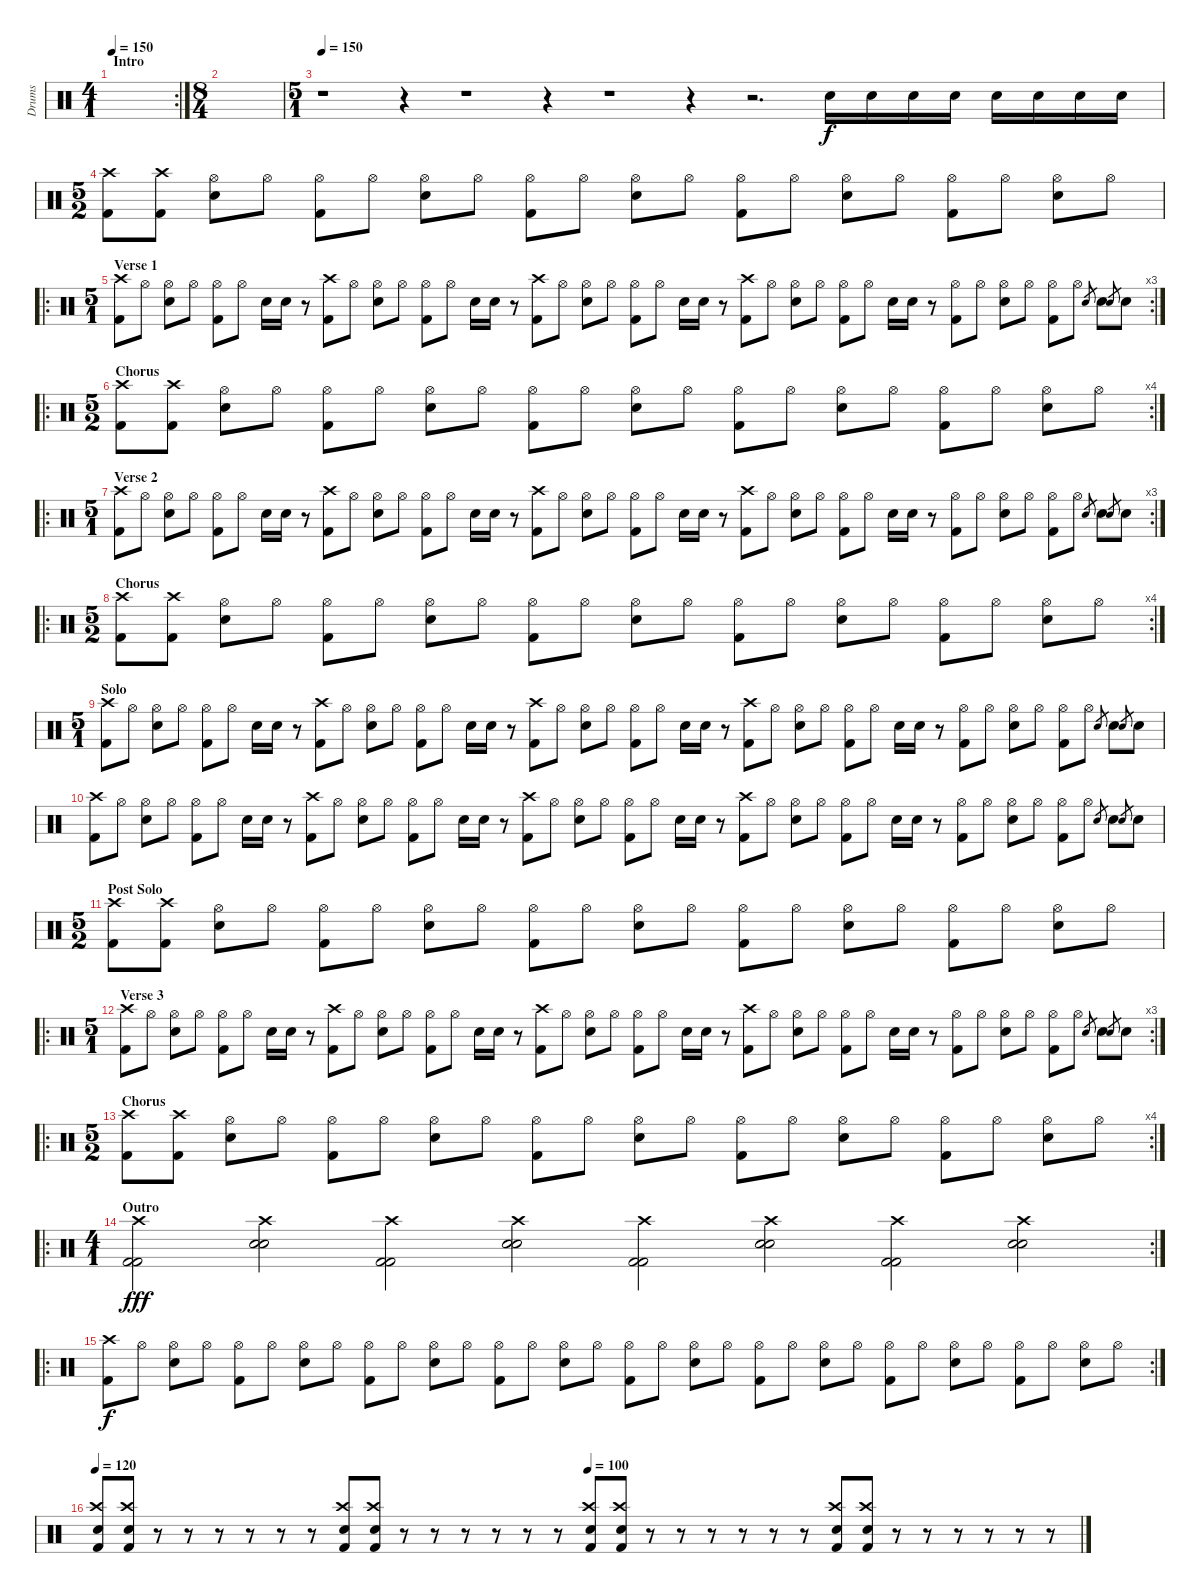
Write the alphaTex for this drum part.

\track ("Drums" "Drums") {instrument percussion}
\staff {score}
\articulation defaults
\rc 2
\ts (4 1)
\section ("" "Intro")
\tempo 150
\tempo 100
\tempo 150
\clef neutral
\ks c
|
\ts (8 4)
|
\ts (5 1)
\tempo 150
r.1 r.4 r.1 r.4 r.1 r.4 r.2{d} "Electric Snare (hit)".16 "Electric Snare (hit)".16 "Electric Snare (hit)".16 "Electric Snare (hit)".16 "Electric Snare (hit)".16 "Electric Snare (hit)".16 "Electric Snare (hit)".16 "Electric Snare (hit)".16 |
\ts (5 2)
("Crash high (hit)" "Kick (hit) 2").8 ("Crash high (hit)" "Kick (hit) 2").8 ("Hi-Hat (open)" "Electric Snare (hit)").8 "Hi-Hat (open)".8 ("Hi-Hat (open)" "Kick (hit) 2").8 "Hi-Hat (open)".8 ("Hi-Hat (open)" "Electric Snare (hit)").8 "Hi-Hat (open)".8 ("Hi-Hat (open)" "Kick (hit) 2").8 "Hi-Hat (open)".8 ("Hi-Hat (open)" "Electric Snare (hit)").8 "Hi-Hat (open)".8 ("Hi-Hat (open)" "Kick (hit) 2").8 "Hi-Hat (open)".8 ("Hi-Hat (open)" "Electric Snare (hit)").8 "Hi-Hat (open)".8 ("Hi-Hat (open)" "Kick (hit) 2").8 "Hi-Hat (open)".8 ("Hi-Hat (open)" "Electric Snare (hit)").8 "Hi-Hat (open)".8 |
\ro
\rc 3
\ts (5 1)
\section ("" "Verse 1")
("Crash high (hit)" "Kick (hit) 2").8 "Hi-Hat (open)".8 ("Hi-Hat (open)" "Electric Snare (hit)").8 "Hi-Hat (open)".8 ("Hi-Hat (open)" "Kick (hit) 2").8 "Hi-Hat (open)".8 "Electric Snare (hit)".16 "Electric Snare (hit)".16 r.8 ("Crash high (hit)" "Kick (hit) 2").8 "Hi-Hat (open)".8 ("Hi-Hat (open)" "Electric Snare (hit)").8 "Hi-Hat (open)".8 ("Hi-Hat (open)" "Kick (hit) 2").8 "Hi-Hat (open)".8 "Electric Snare (hit)".16 "Electric Snare (hit)".16 r.8 ("Crash high (hit)" "Kick (hit) 2").8 "Hi-Hat (open)".8 ("Hi-Hat (open)" "Electric Snare (hit)").8 "Hi-Hat (open)".8 ("Hi-Hat (open)" "Kick (hit) 2").8 "Hi-Hat (open)".8 "Electric Snare (hit)".16 "Electric Snare (hit)".16 r.8 ("Crash high (hit)" "Kick (hit) 2").8 "Hi-Hat (open)".8 ("Hi-Hat (open)" "Electric Snare (hit)").8 "Hi-Hat (open)".8 ("Hi-Hat (open)" "Kick (hit) 2").8 "Hi-Hat (open)".8 "Electric Snare (hit)".16 "Electric Snare (hit)".16 r.8 ("Hi-Hat (open)" "Kick (hit) 2").8 "Hi-Hat (open)".8 ("Hi-Hat (open)" "Electric Snare (hit)").8 "Hi-Hat (open)".8 ("Hi-Hat (open)" "Kick (hit) 2").8 "Hi-Hat (open)".8 "Electric Snare (hit)".8{gr} "Electric Snare (hit)".8 "Electric Snare (hit)".8{gr} "Electric Snare (hit)".8 |
\ro
\rc 4
\ts (5 2)
\section ("" "Chorus")
("Crash high (hit)" "Kick (hit) 2").8 ("Crash high (hit)" "Kick (hit) 2").8 ("Hi-Hat (open)" "Electric Snare (hit)").8 "Hi-Hat (open)".8 ("Hi-Hat (open)" "Kick (hit) 2").8 "Hi-Hat (open)".8 ("Hi-Hat (open)" "Electric Snare (hit)").8 "Hi-Hat (open)".8 ("Hi-Hat (open)" "Kick (hit) 2").8 "Hi-Hat (open)".8 ("Hi-Hat (open)" "Electric Snare (hit)").8 "Hi-Hat (open)".8 ("Hi-Hat (open)" "Kick (hit) 2").8 "Hi-Hat (open)".8 ("Hi-Hat (open)" "Electric Snare (hit)").8 "Hi-Hat (open)".8 ("Hi-Hat (open)" "Kick (hit) 2").8 "Hi-Hat (open)".8 ("Hi-Hat (open)" "Electric Snare (hit)").8 "Hi-Hat (open)".8 |
\ro
\rc 3
\ts (5 1)
\section ("" "Verse 2")
("Crash high (hit)" "Kick (hit) 2").8 "Hi-Hat (open)".8 ("Hi-Hat (open)" "Electric Snare (hit)").8 "Hi-Hat (open)".8 ("Hi-Hat (open)" "Kick (hit) 2").8 "Hi-Hat (open)".8 "Electric Snare (hit)".16 "Electric Snare (hit)".16 r.8 ("Crash high (hit)" "Kick (hit) 2").8 "Hi-Hat (open)".8 ("Hi-Hat (open)" "Electric Snare (hit)").8 "Hi-Hat (open)".8 ("Hi-Hat (open)" "Kick (hit) 2").8 "Hi-Hat (open)".8 "Electric Snare (hit)".16 "Electric Snare (hit)".16 r.8 ("Crash high (hit)" "Kick (hit) 2").8 "Hi-Hat (open)".8 ("Hi-Hat (open)" "Electric Snare (hit)").8 "Hi-Hat (open)".8 ("Hi-Hat (open)" "Kick (hit) 2").8 "Hi-Hat (open)".8 "Electric Snare (hit)".16 "Electric Snare (hit)".16 r.8 ("Crash high (hit)" "Kick (hit) 2").8 "Hi-Hat (open)".8 ("Hi-Hat (open)" "Electric Snare (hit)").8 "Hi-Hat (open)".8 ("Hi-Hat (open)" "Kick (hit) 2").8 "Hi-Hat (open)".8 "Electric Snare (hit)".16 "Electric Snare (hit)".16 r.8 ("Hi-Hat (open)" "Kick (hit) 2").8 "Hi-Hat (open)".8 ("Hi-Hat (open)" "Electric Snare (hit)").8 "Hi-Hat (open)".8 ("Hi-Hat (open)" "Kick (hit) 2").8 "Hi-Hat (open)".8 "Electric Snare (hit)".8{gr} "Electric Snare (hit)".8 "Electric Snare (hit)".8{gr} "Electric Snare (hit)".8 |
\ro
\rc 4
\ts (5 2)
\section ("" "Chorus")
("Crash high (hit)" "Kick (hit) 2").8 ("Crash high (hit)" "Kick (hit) 2").8 ("Hi-Hat (open)" "Electric Snare (hit)").8 "Hi-Hat (open)".8 ("Hi-Hat (open)" "Kick (hit) 2").8 "Hi-Hat (open)".8 ("Hi-Hat (open)" "Electric Snare (hit)").8 "Hi-Hat (open)".8 ("Hi-Hat (open)" "Kick (hit) 2").8 "Hi-Hat (open)".8 ("Hi-Hat (open)" "Electric Snare (hit)").8 "Hi-Hat (open)".8 ("Hi-Hat (open)" "Kick (hit) 2").8 "Hi-Hat (open)".8 ("Hi-Hat (open)" "Electric Snare (hit)").8 "Hi-Hat (open)".8 ("Hi-Hat (open)" "Kick (hit) 2").8 "Hi-Hat (open)".8 ("Hi-Hat (open)" "Electric Snare (hit)").8 "Hi-Hat (open)".8 |
\ts (5 1)
\section ("" "Solo")
("Crash high (hit)" "Kick (hit) 2").8 "Hi-Hat (open)".8 ("Hi-Hat (open)" "Electric Snare (hit)").8 "Hi-Hat (open)".8 ("Hi-Hat (open)" "Kick (hit) 2").8 "Hi-Hat (open)".8 "Electric Snare (hit)".16 "Electric Snare (hit)".16 r.8 ("Crash high (hit)" "Kick (hit) 2").8 "Hi-Hat (open)".8 ("Hi-Hat (open)" "Electric Snare (hit)").8 "Hi-Hat (open)".8 ("Hi-Hat (open)" "Kick (hit) 2").8 "Hi-Hat (open)".8 "Electric Snare (hit)".16 "Electric Snare (hit)".16 r.8 ("Crash high (hit)" "Kick (hit) 2").8 "Hi-Hat (open)".8 ("Hi-Hat (open)" "Electric Snare (hit)").8 "Hi-Hat (open)".8 ("Hi-Hat (open)" "Kick (hit) 2").8 "Hi-Hat (open)".8 "Electric Snare (hit)".16 "Electric Snare (hit)".16 r.8 ("Crash high (hit)" "Kick (hit) 2").8 "Hi-Hat (open)".8 ("Hi-Hat (open)" "Electric Snare (hit)").8 "Hi-Hat (open)".8 ("Hi-Hat (open)" "Kick (hit) 2").8 "Hi-Hat (open)".8 "Electric Snare (hit)".16 "Electric Snare (hit)".16 r.8 ("Hi-Hat (open)" "Kick (hit) 2").8 "Hi-Hat (open)".8 ("Hi-Hat (open)" "Electric Snare (hit)").8 "Hi-Hat (open)".8 ("Hi-Hat (open)" "Kick (hit) 2").8 "Hi-Hat (open)".8 "Electric Snare (hit)".8{gr} "Electric Snare (hit)".8 "Electric Snare (hit)".8{gr} "Electric Snare (hit)".8 |
("Crash high (hit)" "Kick (hit) 2").8 "Hi-Hat (open)".8 ("Hi-Hat (open)" "Electric Snare (hit)").8 "Hi-Hat (open)".8 ("Hi-Hat (open)" "Kick (hit) 2").8 "Hi-Hat (open)".8 "Electric Snare (hit)".16 "Electric Snare (hit)".16 r.8 ("Crash high (hit)" "Kick (hit) 2").8 "Hi-Hat (open)".8 ("Hi-Hat (open)" "Electric Snare (hit)").8 "Hi-Hat (open)".8 ("Hi-Hat (open)" "Kick (hit) 2").8 "Hi-Hat (open)".8 "Electric Snare (hit)".16 "Electric Snare (hit)".16 r.8 ("Crash high (hit)" "Kick (hit) 2").8 "Hi-Hat (open)".8 ("Hi-Hat (open)" "Electric Snare (hit)").8 "Hi-Hat (open)".8 ("Hi-Hat (open)" "Kick (hit) 2").8 "Hi-Hat (open)".8 "Electric Snare (hit)".16 "Electric Snare (hit)".16 r.8 ("Crash high (hit)" "Kick (hit) 2").8 "Hi-Hat (open)".8 ("Hi-Hat (open)" "Electric Snare (hit)").8 "Hi-Hat (open)".8 ("Hi-Hat (open)" "Kick (hit) 2").8 "Hi-Hat (open)".8 "Electric Snare (hit)".16 "Electric Snare (hit)".16 r.8 ("Hi-Hat (open)" "Kick (hit) 2").8 "Hi-Hat (open)".8 ("Hi-Hat (open)" "Electric Snare (hit)").8 "Hi-Hat (open)".8 ("Hi-Hat (open)" "Kick (hit) 2").8 "Hi-Hat (open)".8 "Electric Snare (hit)".8{gr} "Electric Snare (hit)".8 "Electric Snare (hit)".8{gr} "Electric Snare (hit)".8 |
\ts (5 2)
\section ("" "Post Solo")
("Crash high (hit)" "Kick (hit) 2").8 ("Crash high (hit)" "Kick (hit) 2").8 ("Hi-Hat (open)" "Electric Snare (hit)").8 "Hi-Hat (open)".8 ("Hi-Hat (open)" "Kick (hit) 2").8 "Hi-Hat (open)".8 ("Hi-Hat (open)" "Electric Snare (hit)").8 "Hi-Hat (open)".8 ("Hi-Hat (open)" "Kick (hit) 2").8 "Hi-Hat (open)".8 ("Hi-Hat (open)" "Electric Snare (hit)").8 "Hi-Hat (open)".8 ("Hi-Hat (open)" "Kick (hit) 2").8 "Hi-Hat (open)".8 ("Hi-Hat (open)" "Electric Snare (hit)").8 "Hi-Hat (open)".8 ("Hi-Hat (open)" "Kick (hit) 2").8 "Hi-Hat (open)".8 ("Hi-Hat (open)" "Electric Snare (hit)").8 "Hi-Hat (open)".8 |
\ro
\rc 3
\ts (5 1)
\section ("" "Verse 3")
("Crash high (hit)" "Kick (hit) 2").8 "Hi-Hat (open)".8 ("Hi-Hat (open)" "Electric Snare (hit)").8 "Hi-Hat (open)".8 ("Hi-Hat (open)" "Kick (hit) 2").8 "Hi-Hat (open)".8 "Electric Snare (hit)".16 "Electric Snare (hit)".16 r.8 ("Crash high (hit)" "Kick (hit) 2").8 "Hi-Hat (open)".8 ("Hi-Hat (open)" "Electric Snare (hit)").8 "Hi-Hat (open)".8 ("Hi-Hat (open)" "Kick (hit) 2").8 "Hi-Hat (open)".8 "Electric Snare (hit)".16 "Electric Snare (hit)".16 r.8 ("Crash high (hit)" "Kick (hit) 2").8 "Hi-Hat (open)".8 ("Hi-Hat (open)" "Electric Snare (hit)").8 "Hi-Hat (open)".8 ("Hi-Hat (open)" "Kick (hit) 2").8 "Hi-Hat (open)".8 "Electric Snare (hit)".16 "Electric Snare (hit)".16 r.8 ("Crash high (hit)" "Kick (hit) 2").8 "Hi-Hat (open)".8 ("Hi-Hat (open)" "Electric Snare (hit)").8 "Hi-Hat (open)".8 ("Hi-Hat (open)" "Kick (hit) 2").8 "Hi-Hat (open)".8 "Electric Snare (hit)".16 "Electric Snare (hit)".16 r.8 ("Hi-Hat (open)" "Kick (hit) 2").8 "Hi-Hat (open)".8 ("Hi-Hat (open)" "Electric Snare (hit)").8 "Hi-Hat (open)".8 ("Hi-Hat (open)" "Kick (hit) 2").8 "Hi-Hat (open)".8 "Electric Snare (hit)".8{gr} "Electric Snare (hit)".8 "Electric Snare (hit)".8{gr} "Electric Snare (hit)".8 |
\ro
\rc 4
\ts (5 2)
\section ("" "Chorus")
("Crash high (hit)" "Kick (hit) 2").8 ("Crash high (hit)" "Kick (hit) 2").8 ("Hi-Hat (open)" "Electric Snare (hit)").8 "Hi-Hat (open)".8 ("Hi-Hat (open)" "Kick (hit) 2").8 "Hi-Hat (open)".8 ("Hi-Hat (open)" "Electric Snare (hit)").8 "Hi-Hat (open)".8 ("Hi-Hat (open)" "Kick (hit) 2").8 "Hi-Hat (open)".8 ("Hi-Hat (open)" "Electric Snare (hit)").8 "Hi-Hat (open)".8 ("Hi-Hat (open)" "Kick (hit) 2").8 "Hi-Hat (open)".8 ("Hi-Hat (open)" "Electric Snare (hit)").8 "Hi-Hat (open)".8 ("Hi-Hat (open)" "Kick (hit) 2").8 "Hi-Hat (open)".8 ("Hi-Hat (open)" "Electric Snare (hit)").8 "Hi-Hat (open)".8 |
\ro
\rc 2
\ts (4 1)
\section ("" "Outro")
("Crash high (hit)" "Kick (hit) 2" "Kick (hit) 2").2{dy fff} ("Crash high (hit)" "Electric Snare (hit)" "Electric Snare (hit)").2 ("Crash high (hit)" "Kick (hit) 2" "Kick (hit) 2").2 ("Crash high (hit)" "Electric Snare (hit)" "Electric Snare (hit)").2 ("Crash high (hit)" "Kick (hit) 2" "Kick (hit) 2").2 ("Crash high (hit)" "Electric Snare (hit)" "Electric Snare (hit)").2 ("Crash high (hit)" "Kick (hit) 2" "Kick (hit) 2").2 ("Crash high (hit)" "Electric Snare (hit)" "Electric Snare (hit)").2 |
\ro
\rc 2
("Crash high (hit)" "Kick (hit) 2").8{dy f} "Hi-Hat (open)".8 ("Hi-Hat (open)" "Electric Snare (hit)").8 "Hi-Hat (open)".8 ("Hi-Hat (open)" "Kick (hit) 2").8 "Hi-Hat (open)".8 ("Hi-Hat (open)" "Electric Snare (hit)").8 "Hi-Hat (open)".8 ("Hi-Hat (open)" "Kick (hit) 2").8 "Hi-Hat (open)".8 ("Hi-Hat (open)" "Electric Snare (hit)").8 "Hi-Hat (open)".8 ("Hi-Hat (open)" "Kick (hit) 2").8 "Hi-Hat (open)".8 ("Hi-Hat (open)" "Electric Snare (hit)").8 "Hi-Hat (open)".8 ("Hi-Hat (open)" "Kick (hit) 2").8 "Hi-Hat (open)".8 ("Hi-Hat (open)" "Electric Snare (hit)").8 "Hi-Hat (open)".8 ("Hi-Hat (open)" "Kick (hit) 2").8 "Hi-Hat (open)".8 ("Hi-Hat (open)" "Electric Snare (hit)").8 "Hi-Hat (open)".8 ("Hi-Hat (open)" "Kick (hit) 2").8 "Hi-Hat (open)".8 ("Hi-Hat (open)" "Electric Snare (hit)").8 "Hi-Hat (open)".8 ("Hi-Hat (open)" "Kick (hit) 2").8 "Hi-Hat (open)".8 ("Hi-Hat (open)" "Electric Snare (hit)").8 "Hi-Hat (open)".8 |
\tempo 120
\tempo (100 0.5)
("Crash high (hit)" "Kick (hit) 2" "Electric Snare (hit)").8 ("Crash high (hit)" "Kick (hit) 2" "Electric Snare (hit)").8 r.8 r.8 r.8 r.8 r.8 r.8 ("Crash high (hit)" "Kick (hit) 2" "Electric Snare (hit)").8 ("Crash high (hit)" "Kick (hit) 2" "Electric Snare (hit)").8 r.8 r.8 r.8 r.8 r.8 r.8 ("Crash high (hit)" "Kick (hit) 2" "Electric Snare (hit)").8 ("Crash high (hit)" "Kick (hit) 2" "Electric Snare (hit)").8 r.8 r.8 r.8 r.8 r.8 r.8 ("Crash high (hit)" "Kick (hit) 2" "Electric Snare (hit)").8 ("Crash high (hit)" "Kick (hit) 2" "Electric Snare (hit)").8 r.8 r.8 r.8 r.8 r.8 r.8
